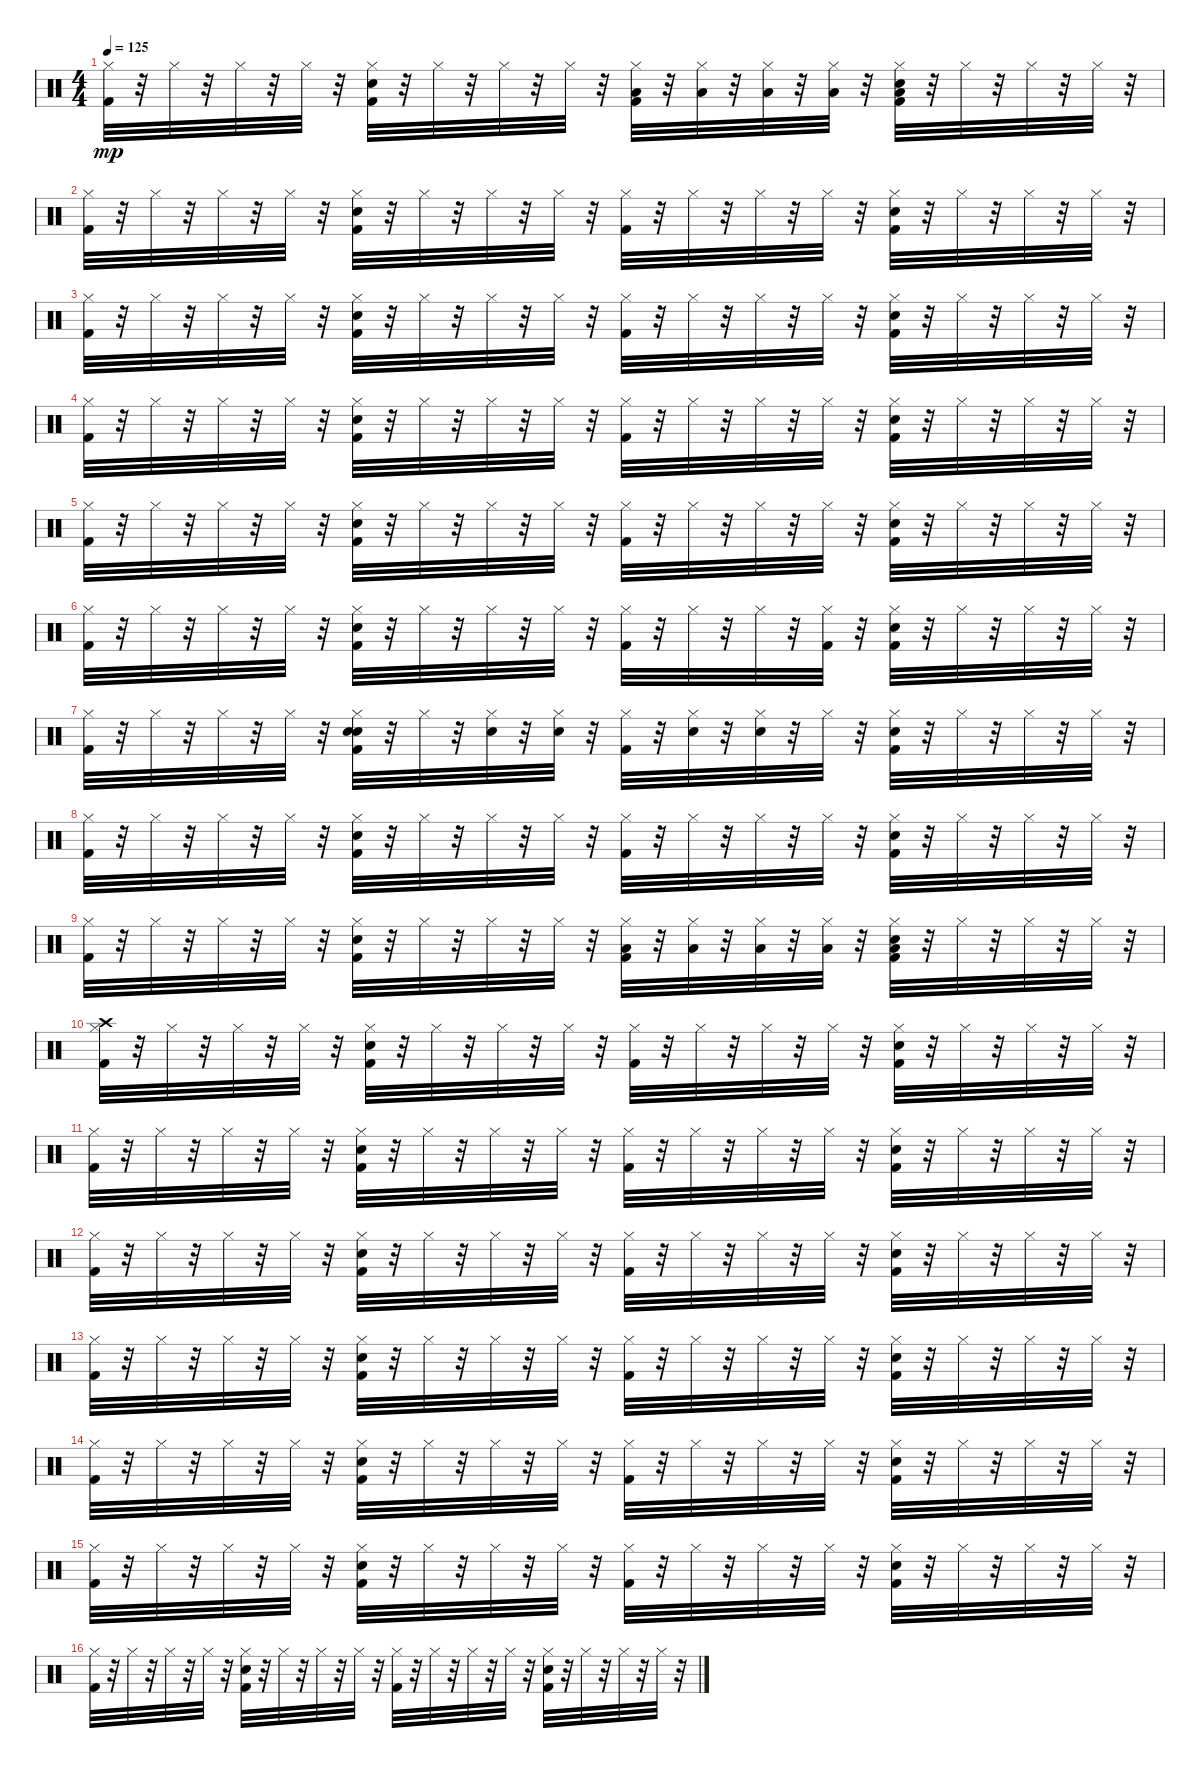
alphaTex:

\track "" {instrument percussion}
\staff {score}
\articulation defaults
\ts (4 4)
\tempo 125
\clef neutral
\ks c
("Kick (hit) 2" "Hi-Hat (closed)").32{dy mp} r.32 "Hi-Hat (closed)".32 r.32 "Hi-Hat (closed)".32 r.32 "Hi-Hat (closed)".32 r.32 ("Kick (hit) 2" "Snare (hit) 2" "Hi-Hat (closed)").32 r.32 "Hi-Hat (closed)".32 r.32 "Hi-Hat (closed)".32 r.32 "Hi-Hat (closed)".32 r.32 ("Low Tom (hit)" "Kick (hit) 2" "Hi-Hat (closed)").32 r.32 ("Low Tom (hit)" "Hi-Hat (closed)").32 r.32 ("Low Tom (hit)" "Hi-Hat (closed)").32 r.32 ("Low Tom (hit)" "Hi-Hat (closed)").32 r.32 ("Low Tom (hit)" "Kick (hit) 2" "Snare (hit) 2" "Hi-Hat (closed)").32 r.32 "Hi-Hat (closed)".32 r.32 "Hi-Hat (closed)".32 r.32 "Hi-Hat (closed)".32 r.32 |
("Kick (hit) 2" "Hi-Hat (closed)").32 r.32 "Hi-Hat (closed)".32 r.32 "Hi-Hat (closed)".32 r.32 "Hi-Hat (closed)".32 r.32 ("Kick (hit) 2" "Snare (hit) 2" "Hi-Hat (closed)").32 r.32 "Hi-Hat (closed)".32 r.32 "Hi-Hat (closed)".32 r.32 "Hi-Hat (closed)".32 r.32 ("Kick (hit) 2" "Hi-Hat (closed)").32 r.32 "Hi-Hat (closed)".32 r.32 "Hi-Hat (closed)".32 r.32 "Hi-Hat (closed)".32 r.32 ("Kick (hit) 2" "Snare (hit) 2" "Hi-Hat (closed)").32 r.32 "Hi-Hat (closed)".32 r.32 "Hi-Hat (closed)".32 r.32 "Hi-Hat (closed)".32 r.32 |
("Kick (hit) 2" "Hi-Hat (closed)").32 r.32 "Hi-Hat (closed)".32 r.32 "Hi-Hat (closed)".32 r.32 "Hi-Hat (closed)".32 r.32 ("Kick (hit) 2" "Snare (hit) 2" "Hi-Hat (closed)").32 r.32 "Hi-Hat (closed)".32 r.32 "Hi-Hat (closed)".32 r.32 "Hi-Hat (closed)".32 r.32 ("Kick (hit) 2" "Hi-Hat (closed)").32 r.32 "Hi-Hat (closed)".32 r.32 "Hi-Hat (closed)".32 r.32 "Hi-Hat (closed)".32 r.32 ("Kick (hit) 2" "Snare (hit) 2" "Hi-Hat (closed)").32 r.32 "Hi-Hat (closed)".32 r.32 "Hi-Hat (closed)".32 r.32 "Hi-Hat (closed)".32 r.32 |
("Kick (hit) 2" "Hi-Hat (closed)").32 r.32 "Hi-Hat (closed)".32 r.32 "Hi-Hat (closed)".32 r.32 "Hi-Hat (closed)".32 r.32 ("Kick (hit) 2" "Snare (hit) 2" "Hi-Hat (closed)").32 r.32 "Hi-Hat (closed)".32 r.32 "Hi-Hat (closed)".32 r.32 "Hi-Hat (closed)".32 r.32 ("Kick (hit) 2" "Hi-Hat (closed)").32 r.32 "Hi-Hat (closed)".32 r.32 "Hi-Hat (closed)".32 r.32 "Hi-Hat (closed)".32 r.32 ("Kick (hit) 2" "Snare (hit) 2" "Hi-Hat (closed)").32 r.32 "Hi-Hat (closed)".32 r.32 "Hi-Hat (closed)".32 r.32 "Hi-Hat (closed)".32 r.32 |
("Kick (hit) 2" "Hi-Hat (closed)").32 r.32 "Hi-Hat (closed)".32 r.32 "Hi-Hat (closed)".32 r.32 "Hi-Hat (closed)".32 r.32 ("Kick (hit) 2" "Snare (hit) 2" "Hi-Hat (closed)").32 r.32 "Hi-Hat (closed)".32 r.32 "Hi-Hat (closed)".32 r.32 "Hi-Hat (closed)".32 r.32 ("Kick (hit) 2" "Hi-Hat (closed)").32 r.32 "Hi-Hat (closed)".32 r.32 "Hi-Hat (closed)".32 r.32 "Hi-Hat (closed)".32 r.32 ("Kick (hit) 2" "Snare (hit) 2" "Hi-Hat (closed)").32 r.32 "Hi-Hat (closed)".32 r.32 "Hi-Hat (closed)".32 r.32 "Hi-Hat (closed)".32 r.32 |
("Kick (hit) 2" "Hi-Hat (closed)").32 r.32 "Hi-Hat (closed)".32 r.32 "Hi-Hat (closed)".32 r.32 "Hi-Hat (closed)".32 r.32 ("Kick (hit) 2" "Snare (hit) 2" "Hi-Hat (closed)").32 r.32 "Hi-Hat (closed)".32 r.32 "Hi-Hat (closed)".32 r.32 "Hi-Hat (closed)".32 r.32 ("Kick (hit) 2" "Hi-Hat (closed)").32 r.32 "Hi-Hat (closed)".32 r.32 "Hi-Hat (closed)".32 r.32 ("Kick (hit) 2" "Hi-Hat (closed)").32 r.32 ("Kick (hit) 2" "Snare (hit) 2" "Hi-Hat (closed)").32 r.32 "Hi-Hat (closed)".32 r.32 "Hi-Hat (closed)".32 r.32 "Hi-Hat (closed)".32 r.32 |
("Kick (hit) 2" "Hi-Hat (closed)").32 r.32 "Hi-Hat (closed)".32 r.32 "Hi-Hat (closed)".32 r.32 "Hi-Hat (closed)".32 r.32 ("Hand Clap (hit)" "Kick (hit) 2" "Snare (hit) 2" "Hi-Hat (closed)").32 r.32 "Hi-Hat (closed)".32 r.32 ("Hand Clap (hit)" "Hi-Hat (closed)").32 r.32 ("Hand Clap (hit)" "Hi-Hat (closed)").32 r.32 ("Kick (hit) 2" "Hi-Hat (closed)").32 r.32 ("Hand Clap (hit)" "Hi-Hat (closed)").32 r.32 ("Hand Clap (hit)" "Hi-Hat (closed)").32 r.32 "Hi-Hat (closed)".32 r.32 ("Kick (hit) 2" "Snare (hit) 2" "Hi-Hat (closed)").32 r.32 "Hi-Hat (closed)".32 r.32 "Hi-Hat (closed)".32 r.32 "Hi-Hat (closed)".32 r.32 |
("Kick (hit) 2" "Hi-Hat (closed)").32 r.32 "Hi-Hat (closed)".32 r.32 "Hi-Hat (closed)".32 r.32 "Hi-Hat (closed)".32 r.32 ("Kick (hit) 2" "Snare (hit) 2" "Hi-Hat (closed)").32 r.32 "Hi-Hat (closed)".32 r.32 "Hi-Hat (closed)".32 r.32 "Hi-Hat (closed)".32 r.32 ("Kick (hit) 2" "Hi-Hat (closed)").32 r.32 "Hi-Hat (closed)".32 r.32 "Hi-Hat (closed)".32 r.32 "Hi-Hat (closed)".32 r.32 ("Kick (hit) 2" "Snare (hit) 2" "Hi-Hat (closed)").32 r.32 "Hi-Hat (closed)".32 r.32 "Hi-Hat (closed)".32 r.32 "Hi-Hat (closed)".32 r.32 |
("Kick (hit) 2" "Hi-Hat (closed)").32 r.32 "Hi-Hat (closed)".32 r.32 "Hi-Hat (closed)".32 r.32 "Hi-Hat (closed)".32 r.32 ("Kick (hit) 2" "Snare (hit) 2" "Hi-Hat (closed)").32 r.32 "Hi-Hat (closed)".32 r.32 "Hi-Hat (closed)".32 r.32 "Hi-Hat (closed)".32 r.32 ("Low Tom (hit)" "Kick (hit) 2" "Hi-Hat (closed)").32 r.32 ("Low Tom (hit)" "Hi-Hat (closed)").32 r.32 ("Low Tom (hit)" "Hi-Hat (closed)").32 r.32 ("Low Tom (hit)" "Hi-Hat (closed)").32 r.32 ("Low Tom (hit)" "Kick (hit) 2" "Snare (hit) 2" "Hi-Hat (closed)").32 r.32 "Hi-Hat (closed)".32 r.32 "Hi-Hat (closed)".32 r.32 "Hi-Hat (closed)".32 r.32 |
("Crash high (hit)" "Kick (hit) 2" "Hi-Hat (closed)").32 r.32 "Hi-Hat (closed)".32 r.32 "Hi-Hat (closed)".32 r.32 "Hi-Hat (closed)".32 r.32 ("Kick (hit) 2" "Snare (hit) 2" "Hi-Hat (closed)").32 r.32 "Hi-Hat (closed)".32 r.32 "Hi-Hat (closed)".32 r.32 "Hi-Hat (closed)".32 r.32 ("Kick (hit) 2" "Hi-Hat (closed)").32 r.32 "Hi-Hat (closed)".32 r.32 "Hi-Hat (closed)".32 r.32 "Hi-Hat (closed)".32 r.32 ("Kick (hit) 2" "Snare (hit) 2" "Hi-Hat (closed)").32 r.32 "Hi-Hat (closed)".32 r.32 "Hi-Hat (closed)".32 r.32 "Hi-Hat (closed)".32 r.32 |
("Kick (hit) 2" "Hi-Hat (closed)").32 r.32 "Hi-Hat (closed)".32 r.32 "Hi-Hat (closed)".32 r.32 "Hi-Hat (closed)".32 r.32 ("Kick (hit) 2" "Snare (hit) 2" "Hi-Hat (closed)").32 r.32 "Hi-Hat (closed)".32 r.32 "Hi-Hat (closed)".32 r.32 "Hi-Hat (closed)".32 r.32 ("Kick (hit) 2" "Hi-Hat (closed)").32 r.32 "Hi-Hat (closed)".32 r.32 "Hi-Hat (closed)".32 r.32 "Hi-Hat (closed)".32 r.32 ("Kick (hit) 2" "Snare (hit) 2" "Hi-Hat (closed)").32 r.32 "Hi-Hat (closed)".32 r.32 "Hi-Hat (closed)".32 r.32 "Hi-Hat (closed)".32 r.32 |
("Kick (hit) 2" "Hi-Hat (closed)").32 r.32 "Hi-Hat (closed)".32 r.32 "Hi-Hat (closed)".32 r.32 "Hi-Hat (closed)".32 r.32 ("Kick (hit) 2" "Snare (hit) 2" "Hi-Hat (closed)").32 r.32 "Hi-Hat (closed)".32 r.32 "Hi-Hat (closed)".32 r.32 "Hi-Hat (closed)".32 r.32 ("Kick (hit) 2" "Hi-Hat (closed)").32 r.32 "Hi-Hat (closed)".32 r.32 "Hi-Hat (closed)".32 r.32 "Hi-Hat (closed)".32 r.32 ("Kick (hit) 2" "Snare (hit) 2" "Hi-Hat (closed)").32 r.32 "Hi-Hat (closed)".32 r.32 "Hi-Hat (closed)".32 r.32 "Hi-Hat (closed)".32 r.32 |
("Kick (hit) 2" "Hi-Hat (closed)").32 r.32 "Hi-Hat (closed)".32 r.32 "Hi-Hat (closed)".32 r.32 "Hi-Hat (closed)".32 r.32 ("Kick (hit) 2" "Snare (hit) 2" "Hi-Hat (closed)").32 r.32 "Hi-Hat (closed)".32 r.32 "Hi-Hat (closed)".32 r.32 "Hi-Hat (closed)".32 r.32 ("Kick (hit) 2" "Hi-Hat (closed)").32 r.32 "Hi-Hat (closed)".32 r.32 "Hi-Hat (closed)".32 r.32 "Hi-Hat (closed)".32 r.32 ("Kick (hit) 2" "Snare (hit) 2" "Hi-Hat (closed)").32 r.32 "Hi-Hat (closed)".32 r.32 "Hi-Hat (closed)".32 r.32 "Hi-Hat (closed)".32 r.32 |
("Kick (hit) 2" "Hi-Hat (closed)").32 r.32 "Hi-Hat (closed)".32 r.32 "Hi-Hat (closed)".32 r.32 "Hi-Hat (closed)".32 r.32 ("Kick (hit) 2" "Snare (hit) 2" "Hi-Hat (closed)").32 r.32 "Hi-Hat (closed)".32 r.32 "Hi-Hat (closed)".32 r.32 "Hi-Hat (closed)".32 r.32 ("Kick (hit) 2" "Hi-Hat (closed)").32 r.32 "Hi-Hat (closed)".32 r.32 "Hi-Hat (closed)".32 r.32 "Hi-Hat (closed)".32 r.32 ("Kick (hit) 2" "Snare (hit) 2" "Hi-Hat (closed)").32 r.32 "Hi-Hat (closed)".32 r.32 "Hi-Hat (closed)".32 r.32 "Hi-Hat (closed)".32 r.32 |
("Kick (hit) 2" "Hi-Hat (closed)").32 r.32 "Hi-Hat (closed)".32 r.32 "Hi-Hat (closed)".32 r.32 "Hi-Hat (closed)".32 r.32 ("Kick (hit) 2" "Snare (hit) 2" "Hi-Hat (closed)").32 r.32 "Hi-Hat (closed)".32 r.32 "Hi-Hat (closed)".32 r.32 "Hi-Hat (closed)".32 r.32 ("Kick (hit) 2" "Hi-Hat (closed)").32 r.32 "Hi-Hat (closed)".32 r.32 "Hi-Hat (closed)".32 r.32 "Hi-Hat (closed)".32 r.32 ("Kick (hit) 2" "Snare (hit) 2" "Hi-Hat (closed)").32 r.32 "Hi-Hat (closed)".32 r.32 "Hi-Hat (closed)".32 r.32 "Hi-Hat (closed)".32 r.32 |
("Kick (hit) 2" "Hi-Hat (closed)").32 r.32 "Hi-Hat (closed)".32 r.32 "Hi-Hat (closed)".32 r.32 "Hi-Hat (closed)".32 r.32 ("Kick (hit) 2" "Snare (hit) 2" "Hi-Hat (closed)").32 r.32 "Hi-Hat (closed)".32 r.32 "Hi-Hat (closed)".32 r.32 "Hi-Hat (closed)".32 r.32 ("Kick (hit) 2" "Hi-Hat (closed)").32 r.32 "Hi-Hat (closed)".32 r.32 "Hi-Hat (closed)".32 r.32 "Hi-Hat (closed)".32 r.32 ("Kick (hit) 2" "Snare (hit) 2" "Hi-Hat (closed)").32 r.32 "Hi-Hat (closed)".32 r.32 "Hi-Hat (closed)".32 r.32 "Hi-Hat (closed)".32 r.32
